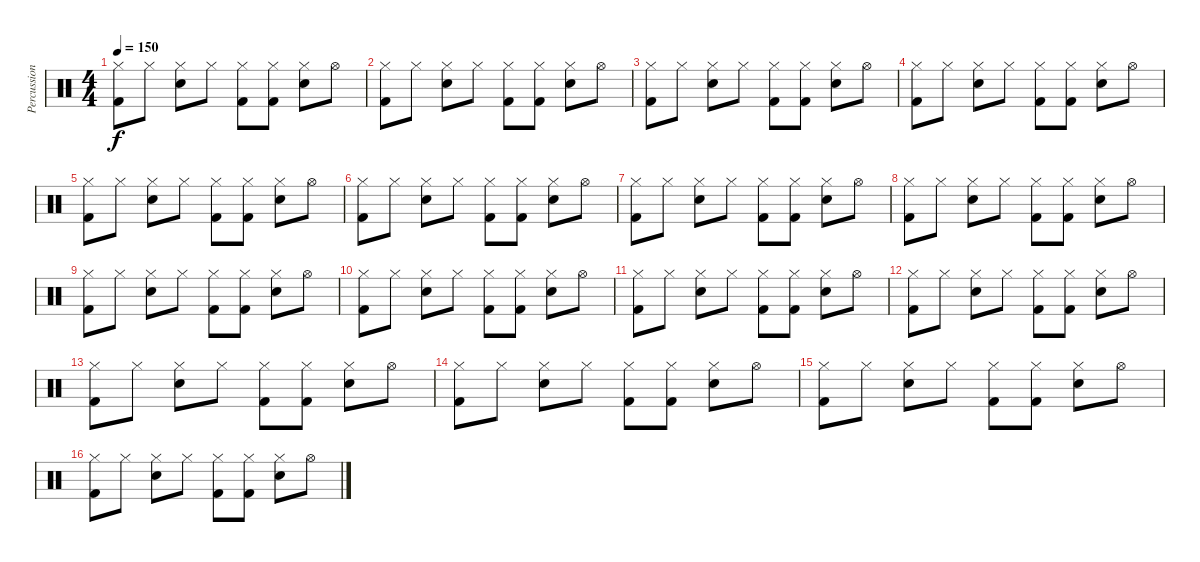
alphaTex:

\track ("Percussion" "Percussion") {instrument percussion}
\staff {score}
\articulation defaults
\ts (4 4)
\tempo 150
\clef neutral
\ks c
("Kick (hit) 2" "Hi-Hat (closed)").8{dy f} "Hi-Hat (closed)".8 ("Hi-Hat (closed)" "Snare (hit) 2").8 "Hi-Hat (closed)".8 ("Hi-Hat (closed)" "Kick (hit) 2").8 ("Hi-Hat (closed)" "Kick (hit) 2").8 ("Hi-Hat (closed)" "Snare (hit) 2").8 "Hi-Hat (open)".8 |
("Kick (hit) 2" "Hi-Hat (closed)").8 "Hi-Hat (closed)".8 ("Hi-Hat (closed)" "Snare (hit) 2").8 "Hi-Hat (closed)".8 ("Hi-Hat (closed)" "Kick (hit) 2").8 ("Hi-Hat (closed)" "Kick (hit) 2").8 ("Hi-Hat (closed)" "Snare (hit) 2").8 "Hi-Hat (open)".8 |
("Kick (hit) 2" "Hi-Hat (closed)").8 "Hi-Hat (closed)".8 ("Hi-Hat (closed)" "Snare (hit) 2").8 "Hi-Hat (closed)".8 ("Hi-Hat (closed)" "Kick (hit) 2").8 ("Hi-Hat (closed)" "Kick (hit) 2").8 ("Hi-Hat (closed)" "Snare (hit) 2").8 "Hi-Hat (open)".8 |
("Kick (hit) 2" "Hi-Hat (closed)").8 "Hi-Hat (closed)".8 ("Hi-Hat (closed)" "Snare (hit) 2").8 "Hi-Hat (closed)".8 ("Hi-Hat (closed)" "Kick (hit) 2").8 ("Hi-Hat (closed)" "Kick (hit) 2").8 ("Hi-Hat (closed)" "Snare (hit) 2").8 "Hi-Hat (open)".8 |
("Kick (hit) 2" "Hi-Hat (closed)").8 "Hi-Hat (closed)".8 ("Hi-Hat (closed)" "Snare (hit) 2").8 "Hi-Hat (closed)".8 ("Hi-Hat (closed)" "Kick (hit) 2").8 ("Hi-Hat (closed)" "Kick (hit) 2").8 ("Hi-Hat (closed)" "Snare (hit) 2").8 "Hi-Hat (open)".8 |
("Kick (hit) 2" "Hi-Hat (closed)").8 "Hi-Hat (closed)".8 ("Hi-Hat (closed)" "Snare (hit) 2").8 "Hi-Hat (closed)".8 ("Hi-Hat (closed)" "Kick (hit) 2").8 ("Hi-Hat (closed)" "Kick (hit) 2").8 ("Hi-Hat (closed)" "Snare (hit) 2").8 "Hi-Hat (open)".8 |
("Kick (hit) 2" "Hi-Hat (closed)").8 "Hi-Hat (closed)".8 ("Hi-Hat (closed)" "Snare (hit) 2").8 "Hi-Hat (closed)".8 ("Hi-Hat (closed)" "Kick (hit) 2").8 ("Hi-Hat (closed)" "Kick (hit) 2").8 ("Hi-Hat (closed)" "Snare (hit) 2").8 "Hi-Hat (open)".8 |
("Kick (hit) 2" "Hi-Hat (closed)").8 "Hi-Hat (closed)".8 ("Hi-Hat (closed)" "Snare (hit) 2").8 "Hi-Hat (closed)".8 ("Hi-Hat (closed)" "Kick (hit) 2").8 ("Hi-Hat (closed)" "Kick (hit) 2").8 ("Hi-Hat (closed)" "Snare (hit) 2").8 "Hi-Hat (open)".8 |
("Kick (hit) 2" "Hi-Hat (closed)").8 "Hi-Hat (closed)".8 ("Hi-Hat (closed)" "Snare (hit) 2").8 "Hi-Hat (closed)".8 ("Hi-Hat (closed)" "Kick (hit) 2").8 ("Hi-Hat (closed)" "Kick (hit) 2").8 ("Hi-Hat (closed)" "Snare (hit) 2").8 "Hi-Hat (open)".8 |
("Kick (hit) 2" "Hi-Hat (closed)").8 "Hi-Hat (closed)".8 ("Hi-Hat (closed)" "Snare (hit) 2").8 "Hi-Hat (closed)".8 ("Hi-Hat (closed)" "Kick (hit) 2").8 ("Hi-Hat (closed)" "Kick (hit) 2").8 ("Hi-Hat (closed)" "Snare (hit) 2").8 "Hi-Hat (open)".8 |
("Kick (hit) 2" "Hi-Hat (closed)").8 "Hi-Hat (closed)".8 ("Hi-Hat (closed)" "Snare (hit) 2").8 "Hi-Hat (closed)".8 ("Hi-Hat (closed)" "Kick (hit) 2").8 ("Hi-Hat (closed)" "Kick (hit) 2").8 ("Hi-Hat (closed)" "Snare (hit) 2").8 "Hi-Hat (open)".8 |
("Kick (hit) 2" "Hi-Hat (closed)").8 "Hi-Hat (closed)".8 ("Hi-Hat (closed)" "Snare (hit) 2").8 "Hi-Hat (closed)".8 ("Hi-Hat (closed)" "Kick (hit) 2").8 ("Hi-Hat (closed)" "Kick (hit) 2").8 ("Hi-Hat (closed)" "Snare (hit) 2").8 "Hi-Hat (open)".8 |
("Kick (hit) 2" "Hi-Hat (closed)").8 "Hi-Hat (closed)".8 ("Hi-Hat (closed)" "Snare (hit) 2").8 "Hi-Hat (closed)".8 ("Hi-Hat (closed)" "Kick (hit) 2").8 ("Hi-Hat (closed)" "Kick (hit) 2").8 ("Hi-Hat (closed)" "Snare (hit) 2").8 "Hi-Hat (open)".8 |
("Kick (hit) 2" "Hi-Hat (closed)").8 "Hi-Hat (closed)".8 ("Hi-Hat (closed)" "Snare (hit) 2").8 "Hi-Hat (closed)".8 ("Hi-Hat (closed)" "Kick (hit) 2").8 ("Hi-Hat (closed)" "Kick (hit) 2").8 ("Hi-Hat (closed)" "Snare (hit) 2").8 "Hi-Hat (open)".8 |
("Kick (hit) 2" "Hi-Hat (closed)").8 "Hi-Hat (closed)".8 ("Hi-Hat (closed)" "Snare (hit) 2").8 "Hi-Hat (closed)".8 ("Hi-Hat (closed)" "Kick (hit) 2").8 ("Hi-Hat (closed)" "Kick (hit) 2").8 ("Hi-Hat (closed)" "Snare (hit) 2").8 "Hi-Hat (open)".8 |
("Kick (hit) 2" "Hi-Hat (closed)").8 "Hi-Hat (closed)".8 ("Hi-Hat (closed)" "Snare (hit) 2").8 "Hi-Hat (closed)".8 ("Hi-Hat (closed)" "Kick (hit) 2").8 ("Hi-Hat (closed)" "Kick (hit) 2").8 ("Hi-Hat (closed)" "Snare (hit) 2").8 "Hi-Hat (open)".8
